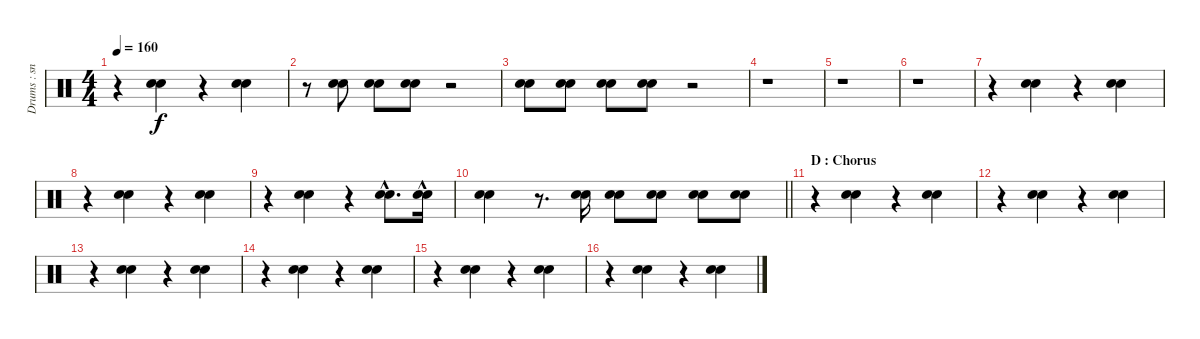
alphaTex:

\track ("Drums : snare" "Drums : sn") {instrument percussion}
\staff {score}
\articulation defaults
\ts (4 4)
\tempo 160
\clef neutral
\ks c
r.4{dy f} ("Snare (hit) 2" "Electric Snare (hit)").4 r.4 ("Snare (hit) 2" "Electric Snare (hit)").4 |
r.8 ("Snare (hit) 2" "Electric Snare (hit)").8 ("Snare (hit) 2" "Electric Snare (hit)").8 ("Snare (hit) 2" "Electric Snare (hit)").8 r.2 |
("Snare (hit) 2" "Electric Snare (hit)").8 ("Snare (hit) 2" "Electric Snare (hit)").8 ("Snare (hit) 2" "Electric Snare (hit)").8 ("Snare (hit) 2" "Electric Snare (hit)").8 r.2 |
r.1 |
r.1 |
r.1 |
r.4 ("Snare (hit) 2" "Electric Snare (hit)").4 r.4 ("Snare (hit) 2" "Electric Snare (hit)").4 |
r.4 ("Snare (hit) 2" "Electric Snare (hit)").4 r.4 ("Snare (hit) 2" "Electric Snare (hit)").4 |
r.4 ("Snare (hit) 2" "Electric Snare (hit)").4 r.4 ("Snare (hit) 2"{hac} "Electric Snare (hit)"{hac}).8{d} ("Snare (hit) 2" "Electric Snare (hit)"{hac}).16 |
\barLineRight lightlight
("Snare (hit) 2" "Electric Snare (hit)").4 r.8{d} ("Snare (hit) 2" "Electric Snare (hit)").16 ("Snare (hit) 2" "Electric Snare (hit)").8 ("Snare (hit) 2" "Electric Snare (hit)").8 ("Snare (hit) 2" "Electric Snare (hit)").8 ("Snare (hit) 2" "Electric Snare (hit)").8 |
\section ("" "D : Chorus")
r.4 ("Snare (hit) 2" "Electric Snare (hit)").4 r.4 ("Snare (hit) 2" "Electric Snare (hit)").4 |
r.4 ("Snare (hit) 2" "Electric Snare (hit)").4 r.4 ("Snare (hit) 2" "Electric Snare (hit)").4 |
r.4 ("Snare (hit) 2" "Electric Snare (hit)").4 r.4 ("Snare (hit) 2" "Electric Snare (hit)").4 |
r.4 ("Snare (hit) 2" "Electric Snare (hit)").4 r.4 ("Snare (hit) 2" "Electric Snare (hit)").4 |
r.4 ("Snare (hit) 2" "Electric Snare (hit)").4 r.4 ("Snare (hit) 2" "Electric Snare (hit)").4 |
r.4 ("Snare (hit) 2" "Electric Snare (hit)").4 r.4 ("Snare (hit) 2" "Electric Snare (hit)").4
